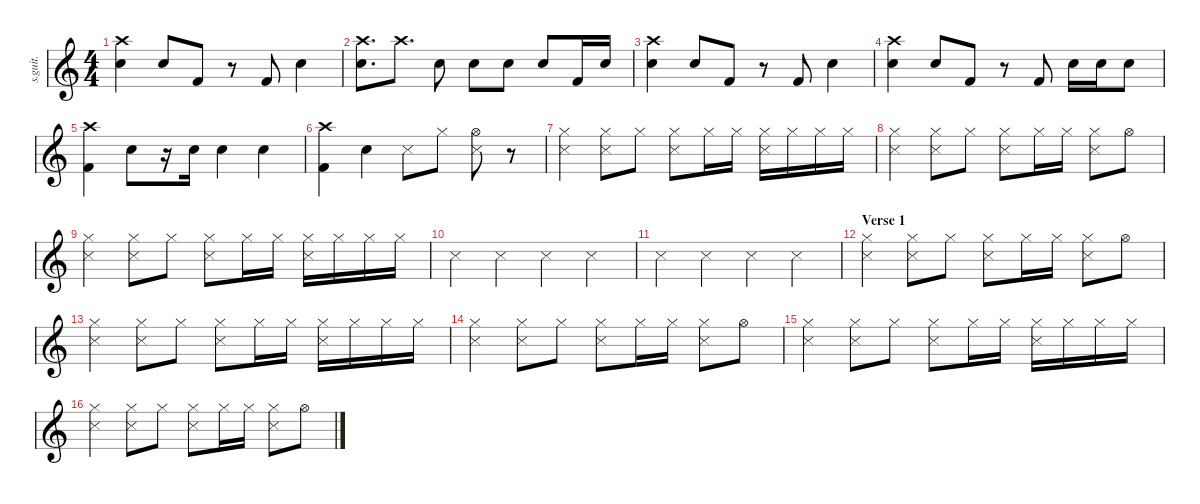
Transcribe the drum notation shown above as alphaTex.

\defaultSystemsLayout 4
\hideDynamics
\bracketExtendMode nobrackets
\track ("Percussion" "s.guit.") {instrument percussion}
\staff {score}
\articulation defaults
\ts (4 4)
\tempo (102 hide)
\clef g2
\ks c
("Crash high (hit)" "Snare (hit) 2").4{dy f} "Snare (hit) 2".8 "Kick (hit) 2".8 r.8 "Kick (hit) 2".8 "Snare (hit) 2".4 |
("Crash high (hit)" "Snare (hit) 2").8{d} "Crash high (hit)".8{d} "Snare (hit) 2".8{dy ff} "Snare (hit) 2".8 "Snare (hit) 2".8{dy fff} "Snare (hit) 2".8 "Kick (hit) 2".16 "Snare (hit) 2".16 |
("Crash high (hit)" "Snare (hit) 2").4 "Snare (hit) 2".8 "Kick (hit) 2".8 r.8 "Kick (hit) 2".8 "Snare (hit) 2".4 |
("Crash high (hit)" "Snare (hit) 2").4 "Snare (hit) 2".8 "Kick (hit) 2".8 r.8 "Kick (hit) 2".8 "Snare (hit) 2".16 "Snare (hit) 2".16 "Snare (hit) 2".8 |
("Crash high (hit)" "Kick (hit) 2").4 "Snare (hit) 2".8{dy ff} r.16 "Snare (hit) 2".16 "Snare (hit) 2".4{dy fff} "Snare (hit) 2".4 |
("Crash high (hit)" "Kick (hit) 2").4 "Snare (hit) 2".4{dy ff} "Snare (side stick) 3".8{dy f} "Hi-Hat (closed)".8 ("Snare (side stick) 3" "Hi-Hat (open)").8 r.8 |
("Snare (side stick) 3" "Hi-Hat (closed)").4 ("Snare (side stick) 3" "Hi-Hat (closed)").8 "Hi-Hat (closed)".8 ("Snare (side stick) 3" "Hi-Hat (closed)").8 "Hi-Hat (closed)".16 "Hi-Hat (closed)".16 ("Snare (side stick) 3" "Hi-Hat (closed)").16 "Hi-Hat (closed)".16 "Hi-Hat (closed)".16 "Hi-Hat (closed)".16 |
("Snare (side stick) 3" "Hi-Hat (closed)").4 ("Snare (side stick) 3" "Hi-Hat (closed)").8 "Hi-Hat (closed)".8 ("Snare (side stick) 3" "Hi-Hat (closed)").8 "Hi-Hat (closed)".16 "Hi-Hat (closed)".16 ("Snare (side stick) 3" "Hi-Hat (closed)").8 "Hi-Hat (open)".8 |
("Snare (side stick) 3" "Hi-Hat (closed)").4 ("Snare (side stick) 3" "Hi-Hat (closed)").8 "Hi-Hat (closed)".8 ("Snare (side stick) 3" "Hi-Hat (closed)").8 "Hi-Hat (closed)".16 "Hi-Hat (closed)".16 ("Snare (side stick) 3" "Hi-Hat (closed)").16 "Hi-Hat (closed)".16 "Hi-Hat (closed)".16 "Hi-Hat (closed)".16 |
"Snare (side stick) 3".4 "Snare (side stick) 3".4 "Snare (side stick) 3".4 "Snare (side stick) 3".4 |
"Snare (side stick) 3".4 "Snare (side stick) 3".4 "Snare (side stick) 3".4 "Snare (side stick) 3".4 |
\section ("" "Verse 1")
("Snare (side stick) 3" "Hi-Hat (closed)").4 ("Snare (side stick) 3" "Hi-Hat (closed)").8 "Hi-Hat (closed)".8 ("Snare (side stick) 3" "Hi-Hat (closed)").8 "Hi-Hat (closed)".16 "Hi-Hat (closed)".16 ("Snare (side stick) 3" "Hi-Hat (closed)").8 "Hi-Hat (open)".8 |
("Snare (side stick) 3" "Hi-Hat (closed)").4 ("Snare (side stick) 3" "Hi-Hat (closed)").8 "Hi-Hat (closed)".8 ("Snare (side stick) 3" "Hi-Hat (closed)").8 "Hi-Hat (closed)".16 "Hi-Hat (closed)".16 ("Snare (side stick) 3" "Hi-Hat (closed)").16 "Hi-Hat (closed)".16 "Hi-Hat (closed)".16 "Hi-Hat (closed)".16 |
("Snare (side stick) 3" "Hi-Hat (closed)").4 ("Snare (side stick) 3" "Hi-Hat (closed)").8 "Hi-Hat (closed)".8 ("Snare (side stick) 3" "Hi-Hat (closed)").8 "Hi-Hat (closed)".16 "Hi-Hat (closed)".16 ("Snare (side stick) 3" "Hi-Hat (closed)").8 "Hi-Hat (open)".8 |
("Snare (side stick) 3" "Hi-Hat (closed)").4 ("Snare (side stick) 3" "Hi-Hat (closed)").8 "Hi-Hat (closed)".8 ("Snare (side stick) 3" "Hi-Hat (closed)").8 "Hi-Hat (closed)".16 "Hi-Hat (closed)".16 ("Snare (side stick) 3" "Hi-Hat (closed)").16 "Hi-Hat (closed)".16 "Hi-Hat (closed)".16 "Hi-Hat (closed)".16 |
("Snare (side stick) 3" "Hi-Hat (closed)").4 ("Snare (side stick) 3" "Hi-Hat (closed)").8 "Hi-Hat (closed)".8 ("Snare (side stick) 3" "Hi-Hat (closed)").8 "Hi-Hat (closed)".16 "Hi-Hat (closed)".16 ("Snare (side stick) 3" "Hi-Hat (closed)").8 "Hi-Hat (open)".8
